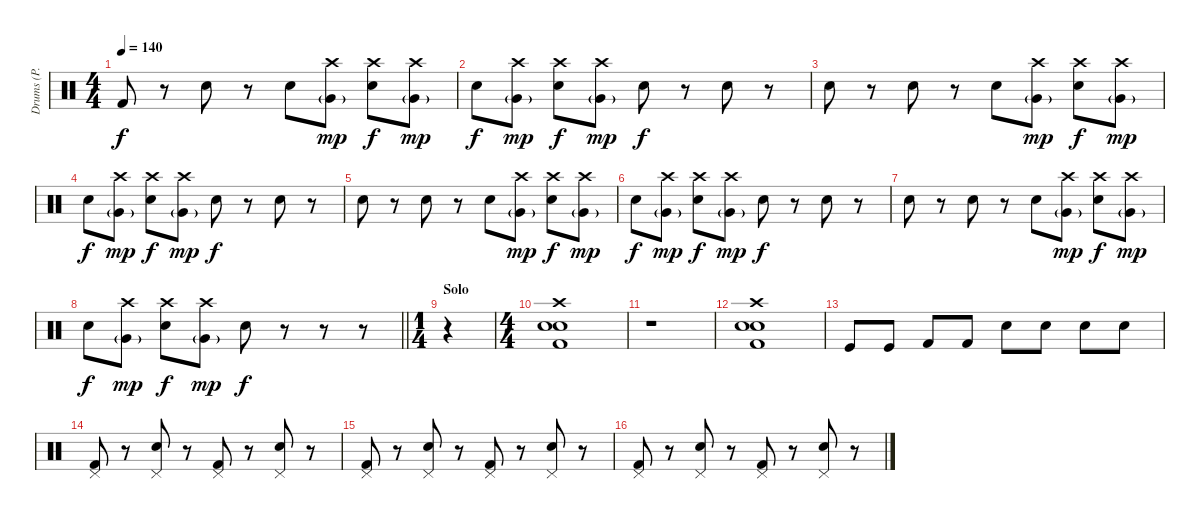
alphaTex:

\track ("Drums (P. Rudd)" "Drums (P. ") {instrument percussion}
\staff {score}
\articulation defaults
\ts (4 4)
\tempo 140
\clef neutral
\ks c "Kick (hit) 2".8{dy f}
r.8 "Snare (hit) 2".8 r.8 "Electric Snare (hit)".8 ("Crash high (hit)" "Very Low Tom (hit)"{g}).8{dy mp} ("Crash high (hit)" "Electric Snare (hit)").8{dy f} ("Crash high (hit)" "Very Low Tom (hit)"{g}).8{dy mp} |
"Electric Snare (hit)".8{dy f} ("Crash high (hit)" "Very Low Tom (hit)"{g}).8{dy mp} ("Crash high (hit)" "Electric Snare (hit)").8{dy f} ("Crash high (hit)" "Very Low Tom (hit)"{g}).8{dy mp} "Electric Snare (hit)".8{dy f} r.8 "Electric Snare (hit)".8 r.8 |
"Electric Snare (hit)".8 r.8 "Electric Snare (hit)".8 r.8 "Electric Snare (hit)".8 ("Crash high (hit)" "Very Low Tom (hit)"{g}).8{dy mp} ("Crash high (hit)" "Electric Snare (hit)").8{dy f} ("Crash high (hit)" "Very Low Tom (hit)"{g}).8{dy mp} |
"Electric Snare (hit)".8{dy f} ("Crash high (hit)" "Very Low Tom (hit)"{g}).8{dy mp} ("Crash high (hit)" "Electric Snare (hit)").8{dy f} ("Crash high (hit)" "Very Low Tom (hit)"{g}).8{dy mp} "Electric Snare (hit)".8{dy f} r.8 "Electric Snare (hit)".8 r.8 |
"Electric Snare (hit)".8 r.8 "Electric Snare (hit)".8 r.8 "Electric Snare (hit)".8 ("Crash high (hit)" "Very Low Tom (hit)"{g}).8{dy mp} ("Crash high (hit)" "Electric Snare (hit)").8{dy f} ("Crash high (hit)" "Very Low Tom (hit)"{g}).8{dy mp} |
"Electric Snare (hit)".8{dy f} ("Crash high (hit)" "Very Low Tom (hit)"{g}).8{dy mp} ("Crash high (hit)" "Electric Snare (hit)").8{dy f} ("Crash high (hit)" "Very Low Tom (hit)"{g}).8{dy mp} "Electric Snare (hit)".8{dy f} r.8 "Electric Snare (hit)".8 r.8 |
"Electric Snare (hit)".8 r.8 "Electric Snare (hit)".8 r.8 "Electric Snare (hit)".8 ("Crash high (hit)" "Very Low Tom (hit)"{g}).8{dy mp} ("Crash high (hit)" "Electric Snare (hit)").8{dy f} ("Crash high (hit)" "Very Low Tom (hit)"{g}).8{dy mp} |
\barLineRight lightlight "Electric Snare (hit)".8{dy f}
("Crash high (hit)" "Very Low Tom (hit)"{g}).8{dy mp} ("Crash high (hit)" "Electric Snare (hit)").8{dy f} ("Crash high (hit)" "Very Low Tom (hit)"{g}).8{dy mp} "Electric Snare (hit)".8{dy f} r.8 r.8 r.8 |
\ts (1 4)
\section ("" "Solo ")
r.4 |
\ts (4 4)
("Crash high (hit)" "Electric Snare (hit)" "Snare (hit) 2" "Kick (hit) 2").1 |
r.1 |
("Crash high (hit)" "Electric Snare (hit)" "Snare (hit) 2" "Kick (hit) 2").1 |
"Kick (hit)".8 "Kick (hit)".8 "Kick (hit) 2".8 "Kick (hit) 2".8 "Snare (hit) 2".8 "Snare (hit) 2".8 "Electric Snare (hit)".8 "Electric Snare (hit)".8 |
("Pedal Hi-Hat (hit)" "Kick (hit) 2").8 r.8 ("Pedal Hi-Hat (hit)" "Snare (hit) 2").8 r.8 ("Pedal Hi-Hat (hit)" "Kick (hit) 2").8 r.8 ("Pedal Hi-Hat (hit)" "Snare (hit) 2").8 r.8 |
("Pedal Hi-Hat (hit)" "Kick (hit) 2").8 r.8 ("Pedal Hi-Hat (hit)" "Snare (hit) 2").8 r.8 ("Pedal Hi-Hat (hit)" "Kick (hit) 2").8 r.8 ("Pedal Hi-Hat (hit)" "Snare (hit) 2").8 r.8 |
("Pedal Hi-Hat (hit)" "Kick (hit) 2").8 r.8 ("Pedal Hi-Hat (hit)" "Snare (hit) 2").8 r.8 ("Pedal Hi-Hat (hit)" "Kick (hit) 2").8 r.8 ("Pedal Hi-Hat (hit)" "Snare (hit) 2").8 r.8
